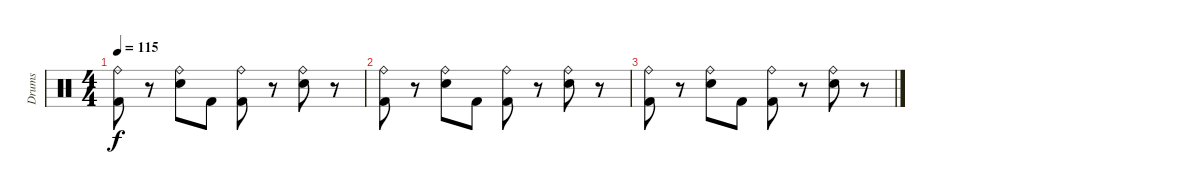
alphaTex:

\track ("Drums" "Drums") {instrument percussion}
\staff {score}
\articulation defaults
\ts (4 4)
\tempo 115
\clef neutral
\ks c
("Ride (bell)" "Kick (hit) 2").8{dy f} r.8 ("Ride (bell)" "Electric Snare (hit)").8 "Kick (hit) 2".8 ("Ride (bell)" "Kick (hit) 2").8 r.8 ("Ride (bell)" "Electric Snare (hit)").8 r.8 |
("Ride (bell)" "Kick (hit) 2").8 r.8 ("Ride (bell)" "Electric Snare (hit)").8 "Kick (hit) 2".8 ("Ride (bell)" "Kick (hit) 2").8 r.8 ("Ride (bell)" "Electric Snare (hit)").8 r.8 |
("Ride (bell)" "Kick (hit) 2").8 r.8 ("Ride (bell)" "Electric Snare (hit)").8 "Kick (hit) 2".8 ("Ride (bell)" "Kick (hit) 2").8 r.8 ("Ride (bell)" "Electric Snare (hit)").8 r.8
